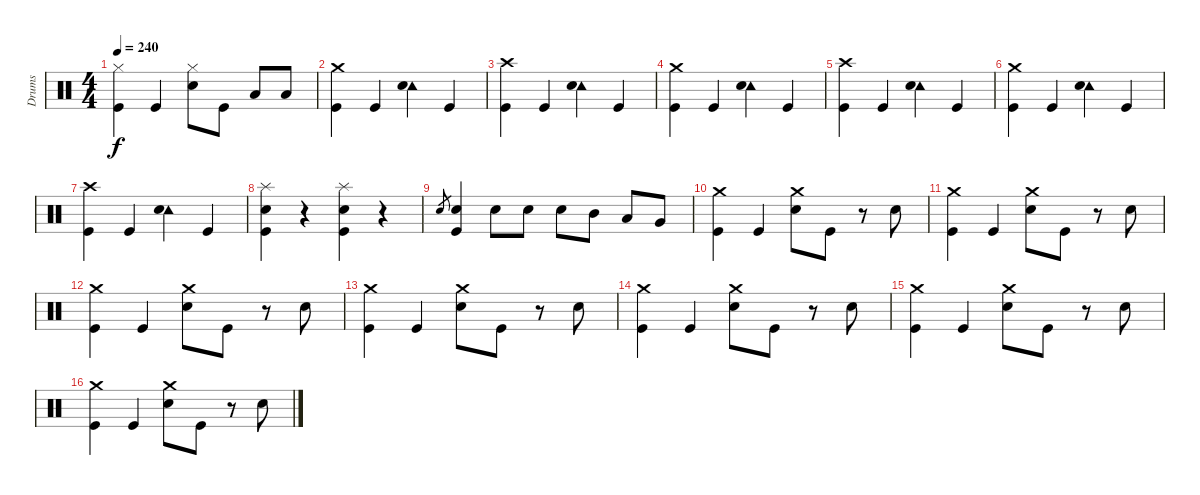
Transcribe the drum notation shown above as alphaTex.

\track ("Drums" "Drums") {instrument percussion}
\staff {score}
\articulation defaults
\ts (4 4)
\tempo 240
\clef neutral
\ks c
("Hi-Hat (closed)" "Kick (hit)").4{dy f} "Kick (hit)".4 ("Hi-Hat (closed)" "Snare (hit) 2").8 "Kick (hit)".8 "Low Tom (hit)".8 "Low Tom (hit)".8 |
("Crash medium (hit)" "Kick (hit)").4 "Kick (hit)".4 ("Tambourine (hit)" "Snare (hit) 2").4 "Kick (hit)".4 |
("Crash high (hit)" "Kick (hit)").4 "Kick (hit)".4 ("Tambourine (hit)" "Snare (hit) 2").4 "Kick (hit)".4 |
("Crash medium (hit)" "Kick (hit)").4 "Kick (hit)".4 ("Tambourine (hit)" "Snare (hit) 2").4 "Kick (hit)".4 |
("Crash high (hit)" "Kick (hit)").4 "Kick (hit)".4 ("Tambourine (hit)" "Snare (hit) 2").4 "Kick (hit)".4 |
("Crash medium (hit)" "Kick (hit)").4 "Kick (hit)".4 ("Tambourine (hit)" "Snare (hit) 2").4 "Kick (hit)".4 |
("Crash high (hit)" "Kick (hit)").4 "Kick (hit)".4 ("Tambourine (hit)" "Snare (hit) 2").4 "Kick (hit)".4 |
("Splash (hit)" "Snare (hit) 2" "Kick (hit)").4 r.4 ("Splash (hit)" "Snare (hit) 2" "Kick (hit)").4 r.4 |
"Snare (hit) 2".8{gr} ("Snare (hit) 2" "Kick (hit)").4 "Snare (hit) 2".8 "Snare (hit) 2".8 "Snare (hit) 2".8 "Mid Tom (hit)".8 "Low Tom (hit)".8 "Very Low Tom (hit)".8 |
("Crash medium (hit)" "Kick (hit)").4 "Kick (hit)".4 ("Crash medium (hit)" "Snare (hit) 2").8 "Kick (hit)".8 r.8 "Snare (hit) 2".8 |
("Crash medium (hit)" "Kick (hit)").4 "Kick (hit)".4 ("Crash medium (hit)" "Snare (hit) 2").8 "Kick (hit)".8 r.8 "Snare (hit) 2".8 |
("Crash medium (hit)" "Kick (hit)").4 "Kick (hit)".4 ("Crash medium (hit)" "Snare (hit) 2").8 "Kick (hit)".8 r.8 "Snare (hit) 2".8 |
("Crash medium (hit)" "Kick (hit)").4 "Kick (hit)".4 ("Crash medium (hit)" "Snare (hit) 2").8 "Kick (hit)".8 r.8 "Snare (hit) 2".8 |
("Crash medium (hit)" "Kick (hit)").4 "Kick (hit)".4 ("Crash medium (hit)" "Snare (hit) 2").8 "Kick (hit)".8 r.8 "Snare (hit) 2".8 |
("Crash medium (hit)" "Kick (hit)").4 "Kick (hit)".4 ("Crash medium (hit)" "Snare (hit) 2").8 "Kick (hit)".8 r.8 "Snare (hit) 2".8 |
("Crash medium (hit)" "Kick (hit)").4 "Kick (hit)".4 ("Crash medium (hit)" "Snare (hit) 2").8 "Kick (hit)".8 r.8 "Snare (hit) 2".8
